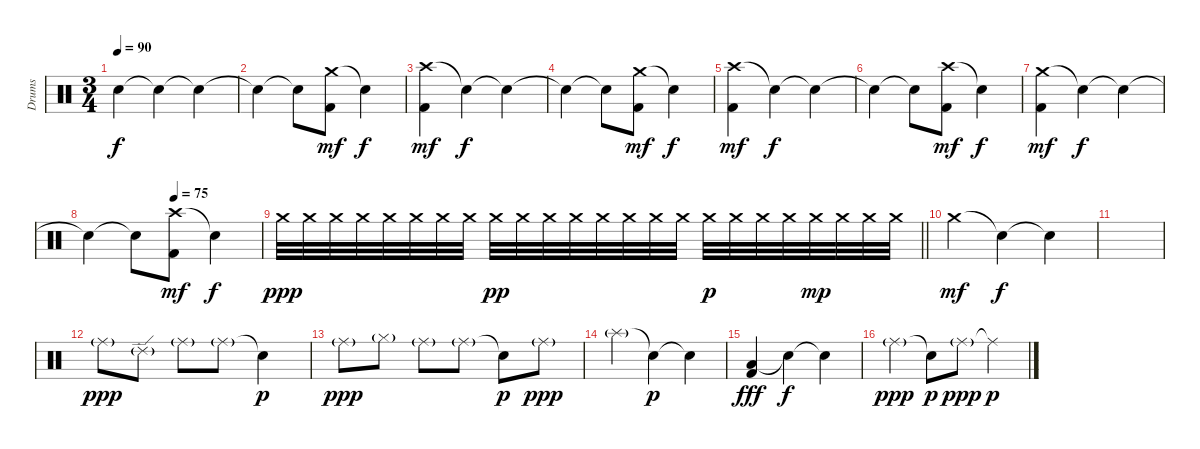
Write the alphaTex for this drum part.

\track ("Drums" "Drums") {instrument percussion}
\staff {score}
\articulation defaults
\ts (3 4)
\section ("" "")
\tempo 90
\clef neutral
\ks c "Snare (hit)"{t}.4{dy f} "Snare (hit)"{t}.4 "Snare (hit)"{t}.4
|
"Snare (hit)"{t}.4 "Snare (hit)"{t}.8 ("Crash medium (hit)" "Kick (hit) 2").8{dy mf} "Snare (hit)"{t}.4{dy f} |
("Crash high (hit)" "Kick (hit) 2").4{dy mf} "Snare (hit)"{t}.4{dy f} "Snare (hit)"{t}.4 |
"Snare (hit)"{t}.4 "Snare (hit)"{t}.8 ("Crash medium (hit)" "Kick (hit) 2").8{dy mf} "Snare (hit)"{t}.4{dy f} |
("Crash high (hit)" "Kick (hit) 2").4{dy mf} "Snare (hit)"{t}.4{dy f} "Snare (hit)"{t}.4 |
"Snare (hit)"{t}.4 "Snare (hit)"{t}.8 ("Crash high (hit)" "Kick (hit) 2").8{dy mf} "Snare (hit)"{t}.4{dy f} |
("Crash medium (hit)" "Kick (hit) 2").4{dy mf} "Snare (hit)"{t}.4{dy f} "Snare (hit)"{t}.4 |
\tempo (75 0.5)
"Snare (hit)"{t}.4 "Snare (hit)"{t}.8 ("Crash high (hit)" "Kick (hit) 2").8{dy mf} "Snare (hit)"{t}.4{dy f} |
\barLineRight lightlight "Crash medium (hit)".32{dy ppp} "Crash medium (hit)".32 "Crash medium (hit)".32 "Crash medium (hit)".32 "Crash medium (hit)".32 "Crash medium (hit)".32 "Crash medium (hit)".32 "Crash medium (hit)".32 "Crash medium (hit)".32{dy pp} "Crash medium (hit)".32 "Crash medium (hit)".32 "Crash medium (hit)".32 "Crash medium (hit)".32 "Crash medium (hit)".32 "Crash medium (hit)".32 "Crash medium (hit)".32 "Crash medium (hit)".32{dy p} "Crash medium (hit)".32 "Crash medium (hit)".32 "Crash medium (hit)".32 "Crash medium (hit)".32{dy mp} "Crash medium (hit)".32 "Crash medium (hit)".32 "Crash medium (hit)".32
|
\section ("" "")
"Crash medium (hit)".4{dy mf} "Snare (hit)"{t}.4{dy f} "Snare (hit)"{t}.4 |
|
"Ride (middle)"{g}.8{dy ppp} "Ride (edge) 2"{g}.8 "Ride (middle)"{g}.8 "Ride (middle)"{g}.8 "Snare (hit)"{t}.4{dy p} |
"Ride (middle)"{g}.8{dy ppp} "Hi-Hat (closed)"{g}.8 "Ride (middle)"{g}.8 "Ride (middle)"{g}.8 "Snare (hit)"{t}.8{dy p} "Ride (middle)"{g}.8{dy ppp} |
"Splash (hit)"{g}.4 "Snare (hit)"{t}.4{dy p} "Snare (hit)"{t}.4 |
("Low Tom (hit)" "Kick (hit) 2").4{dy fff} "Snare (hit)"{t}.4{dy f} "Snare (hit)"{t}.4 |
"Ride (middle)"{g}.4{dy ppp} "Snare (hit)"{t}.8{dy p} "Ride (middle)"{g}.8{dy ppp} "Ride (middle)"{t}.4{dy p}
